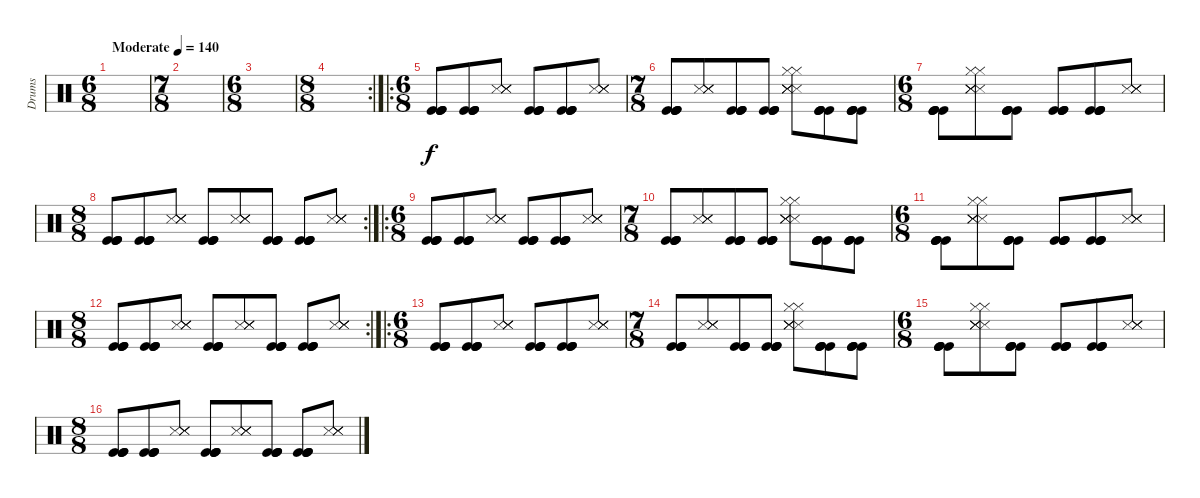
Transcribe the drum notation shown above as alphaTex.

\track ("Drums" "Drums") {instrument percussion}
\staff {score}
\articulation defaults
\ts (6 8)
\tempo (140 "Moderate")
\clef neutral
\ks c
|
\ts (7 8)
|
\ts (6 8)
|
\rc 2
\ts (8 8)
|
\ro
\ts (6 8)
("Kick (hit)" "Kick (hit)" "Kick (hit)" "Kick (hit)").8 ("Kick (hit)" "Kick (hit)" "Kick (hit)" "Kick (hit)").8 ("Metronome (hit)" "Metronome (hit)" "Metronome (hit)" "Metronome (hit)").8 ("Kick (hit)" "Kick (hit)" "Kick (hit)" "Kick (hit)").8 ("Kick (hit)" "Kick (hit)" "Kick (hit)" "Kick (hit)").8 ("Metronome (hit)" "Metronome (hit)" "Metronome (hit)" "Metronome (hit)").8 |
\ts (7 8)
("Kick (hit)" "Kick (hit)" "Kick (hit)" "Kick (hit)").8 ("Metronome (hit)" "Metronome (hit)" "Metronome (hit)" "Metronome (hit)").8 ("Kick (hit)" "Kick (hit)" "Kick (hit)" "Kick (hit)").8 ("Kick (hit)" "Kick (hit)" "Kick (hit)" "Kick (hit)").8 ("Hi-Hat (closed)" "Hi-Hat (closed)" "Metronome (hit)" "Metronome (hit)" "Metronome (hit)" "Metronome (hit)").8 ("Kick (hit)" "Kick (hit)" "Kick (hit)" "Kick (hit)").8 ("Kick (hit)" "Kick (hit)" "Kick (hit)" "Kick (hit)").8 |
\ts (6 8)
("Kick (hit)" "Kick (hit)" "Kick (hit)" "Kick (hit)").8 ("Hi-Hat (closed)" "Hi-Hat (closed)" "Metronome (hit)" "Metronome (hit)" "Metronome (hit)" "Metronome (hit)").8 ("Kick (hit)" "Kick (hit)" "Kick (hit)" "Kick (hit)").8 ("Kick (hit)" "Kick (hit)" "Kick (hit)" "Kick (hit)").8 ("Kick (hit)" "Kick (hit)" "Kick (hit)" "Kick (hit)").8 ("Metronome (hit)" "Metronome (hit)" "Metronome (hit)" "Metronome (hit)").8 |
\rc 2
\ts (8 8)
("Kick (hit)" "Kick (hit)" "Kick (hit)" "Kick (hit)").8 ("Kick (hit)" "Kick (hit)" "Kick (hit)" "Kick (hit)").8 ("Metronome (hit)" "Metronome (hit)" "Metronome (hit)" "Metronome (hit)").8 ("Kick (hit)" "Kick (hit)" "Kick (hit)" "Kick (hit)").8 ("Metronome (hit)" "Metronome (hit)" "Metronome (hit)" "Metronome (hit)").8 ("Kick (hit)" "Kick (hit)" "Kick (hit)" "Kick (hit)").8 ("Kick (hit)" "Kick (hit)" "Kick (hit)" "Kick (hit)").8 ("Metronome (hit)" "Metronome (hit)" "Metronome (hit)" "Metronome (hit)").8 |
\ro
\ts (6 8)
("Kick (hit)" "Kick (hit)" "Kick (hit)" "Kick (hit)").8 ("Kick (hit)" "Kick (hit)" "Kick (hit)" "Kick (hit)").8 ("Metronome (hit)" "Metronome (hit)" "Metronome (hit)" "Metronome (hit)").8 ("Kick (hit)" "Kick (hit)" "Kick (hit)" "Kick (hit)").8 ("Kick (hit)" "Kick (hit)" "Kick (hit)" "Kick (hit)").8 ("Metronome (hit)" "Metronome (hit)" "Metronome (hit)" "Metronome (hit)").8 |
\ts (7 8)
("Kick (hit)" "Kick (hit)" "Kick (hit)" "Kick (hit)").8 ("Metronome (hit)" "Metronome (hit)" "Metronome (hit)" "Metronome (hit)").8 ("Kick (hit)" "Kick (hit)" "Kick (hit)" "Kick (hit)").8 ("Kick (hit)" "Kick (hit)" "Kick (hit)" "Kick (hit)").8 ("Hi-Hat (closed)" "Hi-Hat (closed)" "Metronome (hit)" "Metronome (hit)" "Metronome (hit)" "Metronome (hit)").8 ("Kick (hit)" "Kick (hit)" "Kick (hit)" "Kick (hit)").8 ("Kick (hit)" "Kick (hit)" "Kick (hit)" "Kick (hit)").8 |
\ts (6 8)
("Kick (hit)" "Kick (hit)" "Kick (hit)" "Kick (hit)").8 ("Hi-Hat (closed)" "Hi-Hat (closed)" "Metronome (hit)" "Metronome (hit)" "Metronome (hit)" "Metronome (hit)").8 ("Kick (hit)" "Kick (hit)" "Kick (hit)" "Kick (hit)").8 ("Kick (hit)" "Kick (hit)" "Kick (hit)" "Kick (hit)").8 ("Kick (hit)" "Kick (hit)" "Kick (hit)" "Kick (hit)").8 ("Metronome (hit)" "Metronome (hit)" "Metronome (hit)" "Metronome (hit)").8 |
\rc 2
\ts (8 8)
("Kick (hit)" "Kick (hit)" "Kick (hit)" "Kick (hit)").8 ("Kick (hit)" "Kick (hit)" "Kick (hit)" "Kick (hit)").8 ("Metronome (hit)" "Metronome (hit)" "Metronome (hit)" "Metronome (hit)").8 ("Kick (hit)" "Kick (hit)" "Kick (hit)" "Kick (hit)").8 ("Metronome (hit)" "Metronome (hit)" "Metronome (hit)" "Metronome (hit)").8 ("Kick (hit)" "Kick (hit)" "Kick (hit)" "Kick (hit)").8 ("Kick (hit)" "Kick (hit)" "Kick (hit)" "Kick (hit)").8 ("Metronome (hit)" "Metronome (hit)" "Metronome (hit)" "Metronome (hit)").8 |
\ro
\ts (6 8)
("Kick (hit)" "Kick (hit)" "Kick (hit)" "Kick (hit)").8 ("Kick (hit)" "Kick (hit)" "Kick (hit)" "Kick (hit)").8 ("Metronome (hit)" "Metronome (hit)" "Metronome (hit)" "Metronome (hit)").8 ("Kick (hit)" "Kick (hit)" "Kick (hit)" "Kick (hit)").8 ("Kick (hit)" "Kick (hit)" "Kick (hit)" "Kick (hit)").8 ("Metronome (hit)" "Metronome (hit)" "Metronome (hit)" "Metronome (hit)").8 |
\ts (7 8)
("Kick (hit)" "Kick (hit)" "Kick (hit)" "Kick (hit)").8 ("Metronome (hit)" "Metronome (hit)" "Metronome (hit)" "Metronome (hit)").8 ("Kick (hit)" "Kick (hit)" "Kick (hit)" "Kick (hit)").8 ("Kick (hit)" "Kick (hit)" "Kick (hit)" "Kick (hit)").8 ("Hi-Hat (closed)" "Hi-Hat (closed)" "Metronome (hit)" "Metronome (hit)" "Metronome (hit)" "Metronome (hit)").8 ("Kick (hit)" "Kick (hit)" "Kick (hit)" "Kick (hit)").8 ("Kick (hit)" "Kick (hit)" "Kick (hit)" "Kick (hit)").8 |
\ts (6 8)
("Kick (hit)" "Kick (hit)" "Kick (hit)" "Kick (hit)").8 ("Hi-Hat (closed)" "Hi-Hat (closed)" "Metronome (hit)" "Metronome (hit)" "Metronome (hit)" "Metronome (hit)").8 ("Kick (hit)" "Kick (hit)" "Kick (hit)" "Kick (hit)").8 ("Kick (hit)" "Kick (hit)" "Kick (hit)" "Kick (hit)").8 ("Kick (hit)" "Kick (hit)" "Kick (hit)" "Kick (hit)").8 ("Metronome (hit)" "Metronome (hit)" "Metronome (hit)" "Metronome (hit)").8 |
\ts (8 8)
("Kick (hit)" "Kick (hit)" "Kick (hit)" "Kick (hit)").8 ("Kick (hit)" "Kick (hit)" "Kick (hit)" "Kick (hit)").8 ("Metronome (hit)" "Metronome (hit)" "Metronome (hit)" "Metronome (hit)").8 ("Kick (hit)" "Kick (hit)" "Kick (hit)" "Kick (hit)").8 ("Metronome (hit)" "Metronome (hit)" "Metronome (hit)" "Metronome (hit)").8 ("Kick (hit)" "Kick (hit)" "Kick (hit)" "Kick (hit)").8 ("Kick (hit)" "Kick (hit)" "Kick (hit)" "Kick (hit)").8 ("Metronome (hit)" "Metronome (hit)" "Metronome (hit)" "Metronome (hit)").8
